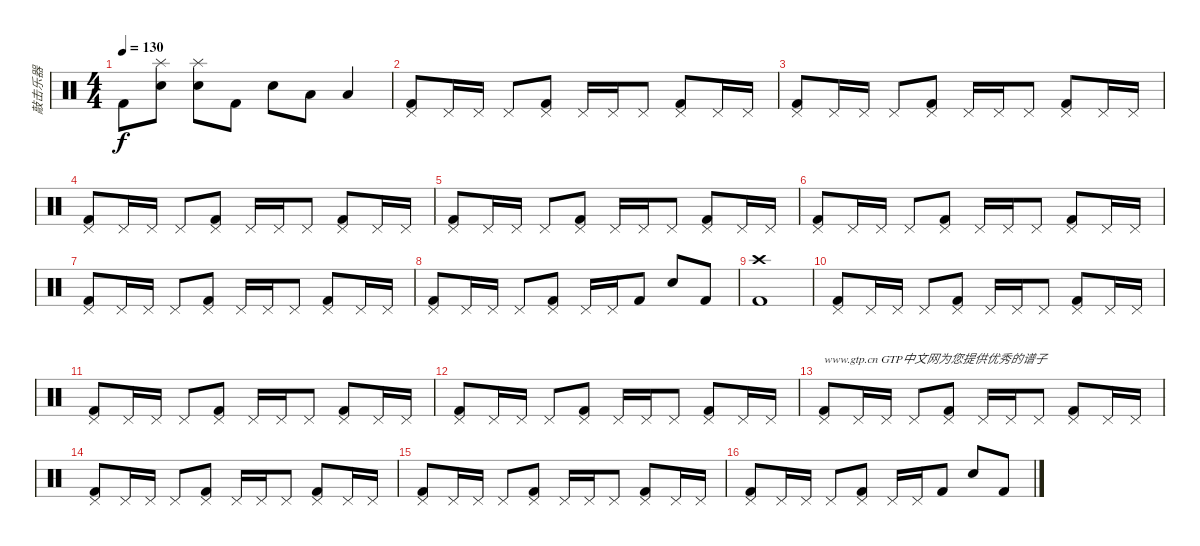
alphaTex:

\track ("敲击乐器" "敲击乐器") {instrument percussion}
\staff {score}
\articulation defaults
\ts (4 4)
\tempo 130
\clef neutral
\ks c "Kick (hit) 2".8{dy f}
("Splash (hit)" "Snare (hit) 2").8 ("Splash (hit)" "Snare (hit) 2").8 "Kick (hit) 2".8 "Snare (hit) 2".8 "Low Tom (hit)".8 "Low Floor Tom (hit)".4 |
("Pedal Hi-Hat (hit)" "Kick (hit) 2").8 "Pedal Hi-Hat (hit)".16 "Pedal Hi-Hat (hit)".16 "Pedal Hi-Hat (hit)".8 ("Pedal Hi-Hat (hit)" "Kick (hit) 2").8 "Pedal Hi-Hat (hit)".16 "Pedal Hi-Hat (hit)".16 "Pedal Hi-Hat (hit)".8 ("Pedal Hi-Hat (hit)" "Kick (hit) 2").8 "Pedal Hi-Hat (hit)".16 "Pedal Hi-Hat (hit)".16 |
("Pedal Hi-Hat (hit)" "Kick (hit) 2").8 "Pedal Hi-Hat (hit)".16 "Pedal Hi-Hat (hit)".16 "Pedal Hi-Hat (hit)".8 ("Pedal Hi-Hat (hit)" "Kick (hit) 2").8 "Pedal Hi-Hat (hit)".16 "Pedal Hi-Hat (hit)".16 "Pedal Hi-Hat (hit)".8 ("Pedal Hi-Hat (hit)" "Kick (hit) 2").8 "Pedal Hi-Hat (hit)".16 "Pedal Hi-Hat (hit)".16 |
("Pedal Hi-Hat (hit)" "Kick (hit) 2").8 "Pedal Hi-Hat (hit)".16 "Pedal Hi-Hat (hit)".16 "Pedal Hi-Hat (hit)".8 ("Pedal Hi-Hat (hit)" "Kick (hit) 2").8 "Pedal Hi-Hat (hit)".16 "Pedal Hi-Hat (hit)".16 "Pedal Hi-Hat (hit)".8 ("Pedal Hi-Hat (hit)" "Kick (hit) 2").8 "Pedal Hi-Hat (hit)".16 "Pedal Hi-Hat (hit)".16 |
("Pedal Hi-Hat (hit)" "Kick (hit) 2").8 "Pedal Hi-Hat (hit)".16 "Pedal Hi-Hat (hit)".16 "Pedal Hi-Hat (hit)".8 ("Pedal Hi-Hat (hit)" "Kick (hit) 2").8 "Pedal Hi-Hat (hit)".16 "Pedal Hi-Hat (hit)".16 "Pedal Hi-Hat (hit)".8 ("Pedal Hi-Hat (hit)" "Kick (hit) 2").8 "Pedal Hi-Hat (hit)".16 "Pedal Hi-Hat (hit)".16 |
("Pedal Hi-Hat (hit)" "Kick (hit) 2").8 "Pedal Hi-Hat (hit)".16 "Pedal Hi-Hat (hit)".16 "Pedal Hi-Hat (hit)".8 ("Pedal Hi-Hat (hit)" "Kick (hit) 2").8 "Pedal Hi-Hat (hit)".16 "Pedal Hi-Hat (hit)".16 "Pedal Hi-Hat (hit)".8 ("Pedal Hi-Hat (hit)" "Kick (hit) 2").8 "Pedal Hi-Hat (hit)".16 "Pedal Hi-Hat (hit)".16 |
("Pedal Hi-Hat (hit)" "Kick (hit) 2").8 "Pedal Hi-Hat (hit)".16 "Pedal Hi-Hat (hit)".16 "Pedal Hi-Hat (hit)".8 ("Pedal Hi-Hat (hit)" "Kick (hit) 2").8 "Pedal Hi-Hat (hit)".16 "Pedal Hi-Hat (hit)".16 "Pedal Hi-Hat (hit)".8 ("Pedal Hi-Hat (hit)" "Kick (hit) 2").8 "Pedal Hi-Hat (hit)".16 "Pedal Hi-Hat (hit)".16 |
("Pedal Hi-Hat (hit)" "Kick (hit) 2").8 "Pedal Hi-Hat (hit)".16 "Pedal Hi-Hat (hit)".16 "Pedal Hi-Hat (hit)".8 ("Pedal Hi-Hat (hit)" "Kick (hit) 2").8 "Pedal Hi-Hat (hit)".16 "Pedal Hi-Hat (hit)".16 "Kick (hit) 2".8 "Snare (hit) 2".8 "Kick (hit) 2".8 |
("Crash high (hit)" "Kick (hit) 2").1 |
("Pedal Hi-Hat (hit)" "Kick (hit) 2").8 "Pedal Hi-Hat (hit)".16 "Pedal Hi-Hat (hit)".16 "Pedal Hi-Hat (hit)".8 ("Pedal Hi-Hat (hit)" "Kick (hit) 2").8 "Pedal Hi-Hat (hit)".16 "Pedal Hi-Hat (hit)".16 "Pedal Hi-Hat (hit)".8 ("Pedal Hi-Hat (hit)" "Kick (hit) 2").8 "Pedal Hi-Hat (hit)".16 "Pedal Hi-Hat (hit)".16 |
("Pedal Hi-Hat (hit)" "Kick (hit) 2").8 "Pedal Hi-Hat (hit)".16 "Pedal Hi-Hat (hit)".16 "Pedal Hi-Hat (hit)".8 ("Pedal Hi-Hat (hit)" "Kick (hit) 2").8 "Pedal Hi-Hat (hit)".16 "Pedal Hi-Hat (hit)".16 "Pedal Hi-Hat (hit)".8 ("Pedal Hi-Hat (hit)" "Kick (hit) 2").8 "Pedal Hi-Hat (hit)".16 "Pedal Hi-Hat (hit)".16 |
("Pedal Hi-Hat (hit)" "Kick (hit) 2").8 "Pedal Hi-Hat (hit)".16 "Pedal Hi-Hat (hit)".16 "Pedal Hi-Hat (hit)".8 ("Pedal Hi-Hat (hit)" "Kick (hit) 2").8 "Pedal Hi-Hat (hit)".16 "Pedal Hi-Hat (hit)".16 "Pedal Hi-Hat (hit)".8 ("Pedal Hi-Hat (hit)" "Kick (hit) 2").8 "Pedal Hi-Hat (hit)".16 "Pedal Hi-Hat (hit)".16 |
("Pedal Hi-Hat (hit)" "Kick (hit) 2").8{txt "www.gtp.cn GTP中文网为您提供优秀的谱子"} "Pedal Hi-Hat (hit)".16 "Pedal Hi-Hat (hit)".16 "Pedal Hi-Hat (hit)".8 ("Pedal Hi-Hat (hit)" "Kick (hit) 2").8 "Pedal Hi-Hat (hit)".16 "Pedal Hi-Hat (hit)".16 "Pedal Hi-Hat (hit)".8 ("Pedal Hi-Hat (hit)" "Kick (hit) 2").8 "Pedal Hi-Hat (hit)".16 "Pedal Hi-Hat (hit)".16 |
("Pedal Hi-Hat (hit)" "Kick (hit) 2").8 "Pedal Hi-Hat (hit)".16 "Pedal Hi-Hat (hit)".16 "Pedal Hi-Hat (hit)".8 ("Pedal Hi-Hat (hit)" "Kick (hit) 2").8 "Pedal Hi-Hat (hit)".16 "Pedal Hi-Hat (hit)".16 "Pedal Hi-Hat (hit)".8 ("Pedal Hi-Hat (hit)" "Kick (hit) 2").8 "Pedal Hi-Hat (hit)".16 "Pedal Hi-Hat (hit)".16 |
("Pedal Hi-Hat (hit)" "Kick (hit) 2").8 "Pedal Hi-Hat (hit)".16 "Pedal Hi-Hat (hit)".16 "Pedal Hi-Hat (hit)".8 ("Pedal Hi-Hat (hit)" "Kick (hit) 2").8 "Pedal Hi-Hat (hit)".16 "Pedal Hi-Hat (hit)".16 "Pedal Hi-Hat (hit)".8 ("Pedal Hi-Hat (hit)" "Kick (hit) 2").8 "Pedal Hi-Hat (hit)".16 "Pedal Hi-Hat (hit)".16 |
("Pedal Hi-Hat (hit)" "Kick (hit) 2").8 "Pedal Hi-Hat (hit)".16 "Pedal Hi-Hat (hit)".16 "Pedal Hi-Hat (hit)".8 ("Pedal Hi-Hat (hit)" "Kick (hit) 2").8 "Pedal Hi-Hat (hit)".16 "Pedal Hi-Hat (hit)".16 "Kick (hit) 2".8 "Snare (hit) 2".8 "Kick (hit) 2".8
